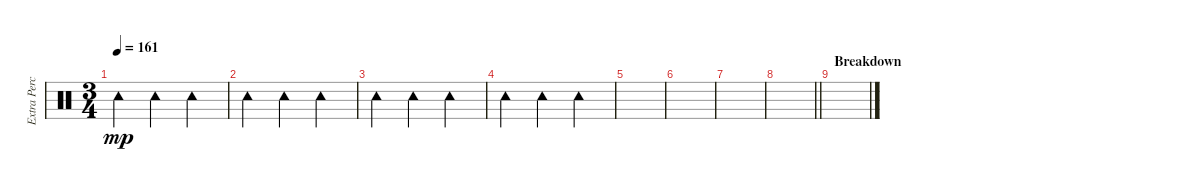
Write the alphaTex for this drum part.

\track ("Extra Percussion" "Extra Perc") {instrument percussion}
\staff {score}
\articulation defaults
\ts (3 4)
\tempo 161
\clef neutral
\ks c "Tambourine (hit)".4{dy mp} "Tambourine (hit)".4 "Tambourine (hit)".4
|
"Tambourine (hit)".4 "Tambourine (hit)".4 "Tambourine (hit)".4 |
"Tambourine (hit)".4 "Tambourine (hit)".4 "Tambourine (hit)".4 |
"Tambourine (hit)".4 "Tambourine (hit)".4 "Tambourine (hit)".4 |
|
|
|
\barLineRight lightlight
|
\section ("" "Breakdown")
